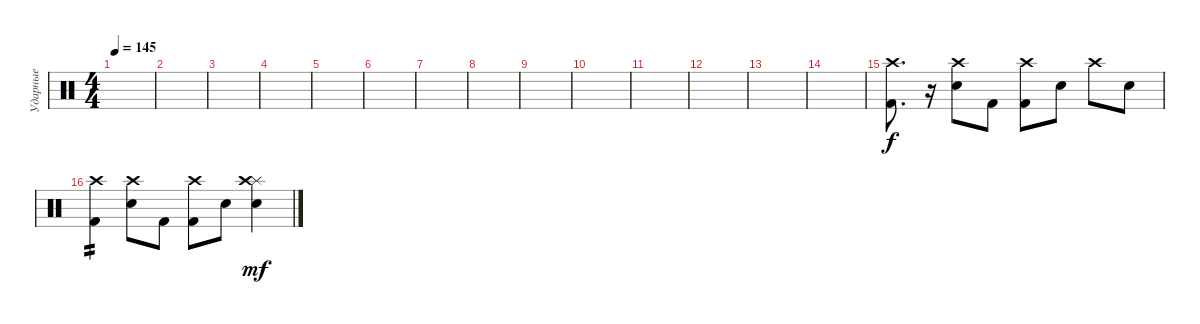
\track ("Ударные" "Ударные") {instrument percussion}
\staff {score}
\articulation defaults
\ts (4 4)
\tempo 145
\clef neutral
\ks c
|
|
|
|
|
|
|
|
|
|
|
|
|
|
("Kick (hit) 2" "Crash high (hit)").8{d} r.16 ("Snare (hit) 2" "Crash high (hit)").8 "Kick (hit) 2".8 ("Kick (hit) 2" "Crash high (hit)").8 "Snare (hit) 2".8 "Crash high (hit)".8 "Snare (hit) 2".8 |
("Kick (hit) 2" "Crash high (hit)").4{tp 2} ("Snare (hit) 2" "Crash high (hit)").8 "Kick (hit) 2".8 ("Kick (hit) 2" "Crash high (hit)").8 "Snare (hit) 2".8 ("Snare (hit) 2" "Splash (hit)" "Crash high (hit)").4{dy mf}
